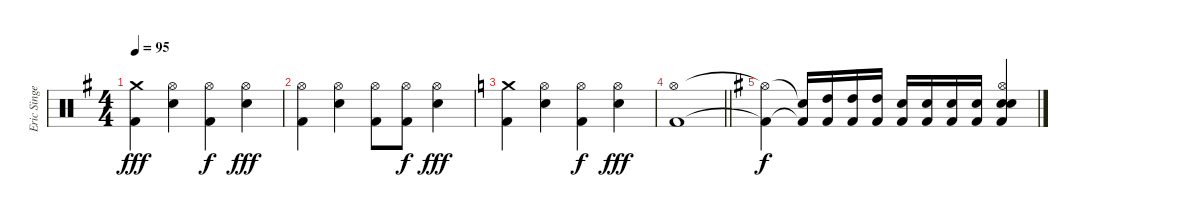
\track ("Eric Singer" "Eric Singe") {instrument percussion}
\staff {score}
\articulation defaults
\ts (4 4)
\tempo 95
\clef neutral
\ks eminor
("Crash medium (hit)" "Kick (hit) 2").4{dy fff} ("Hi-Hat (open)" "Electric Snare (hit)").4 ("Hi-Hat (open)" "Kick (hit) 2").4{dy f} ("Hi-Hat (open)" "Electric Snare (hit)").4{dy fff} |
("Hi-Hat (open)" "Kick (hit) 2").4 ("Hi-Hat (open)" "Electric Snare (hit)").4 ("Hi-Hat (open)" "Kick (hit) 2").8 ("Hi-Hat (open)" "Kick (hit) 2").8{dy f} ("Hi-Hat (open)" "Electric Snare (hit)").4{dy fff} |
\ks c
("Crash medium (hit)" "Kick (hit) 2").4 ("Hi-Hat (open)" "Electric Snare (hit)").4 ("Hi-Hat (open)" "Kick (hit) 2").4{dy f} ("Hi-Hat (open)" "Electric Snare (hit)").4{dy fff} |
\barLineRight lightlight
("Hi-Hat (open)" "Kick (hit) 2").1 |
\ks eminor
("Hi-Hat (open)"{t} "Kick (hit) 2"{t}).4{dy f} ("Snare (hit)"{t} "Kick (hit) 2"{t}).16 ("High Tom (hit)" "Kick (hit) 2").16 ("High Tom (hit)" "Kick (hit) 2").16 ("High Tom (hit)" "Kick (hit) 2").16 ("Electric Snare (hit)" "Kick (hit) 2").16 ("Electric Snare (hit)" "Kick (hit) 2").16 ("Electric Snare (hit)" "Kick (hit) 2").16 ("Electric Snare (hit)" "Kick (hit) 2").16 ("Hi-Hat (open)" "Snare (hit) 2" "Electric Snare (hit)" "Kick (hit) 2").4
